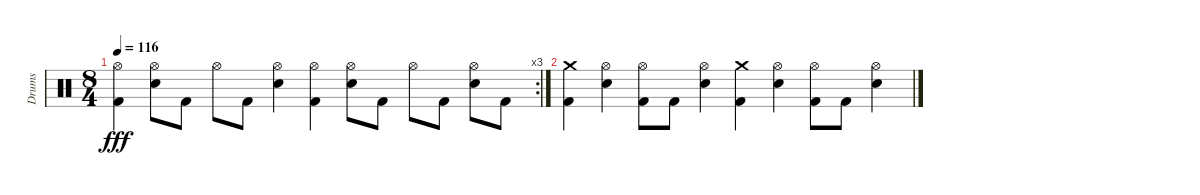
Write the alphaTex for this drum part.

\track ("Drums" "Drums") {instrument percussion}
\staff {score}
\articulation defaults
\rc 3
\ts (8 4)
\tempo 116
\clef neutral
\ks c
("Hi-Hat (open)" "Kick (hit) 2").4{dy fff} ("Hi-Hat (open)" "Snare (hit) 2").8 "Kick (hit) 2".8 "Hi-Hat (open)".8 "Kick (hit) 2".8 ("Hi-Hat (open)" "Snare (hit) 2").4 ("Hi-Hat (open)" "Kick (hit) 2").4 ("Hi-Hat (open)" "Snare (hit) 2").8 "Kick (hit) 2".8 "Hi-Hat (open)".8 "Kick (hit) 2".8 ("Hi-Hat (open)" "Snare (hit) 2").8 "Kick (hit) 2".8 |
("Crash medium (hit)" "Kick (hit) 2").4 ("Hi-Hat (open)" "Snare (hit) 2").4 ("Hi-Hat (open)" "Kick (hit) 2").8 "Kick (hit) 2".8 ("Hi-Hat (open)" "Snare (hit) 2").4 ("Crash medium (hit)" "Kick (hit) 2").4 ("Hi-Hat (open)" "Snare (hit) 2").4 ("Hi-Hat (open)" "Kick (hit) 2").8 "Kick (hit) 2".8 ("Hi-Hat (open)" "Snare (hit) 2").4
